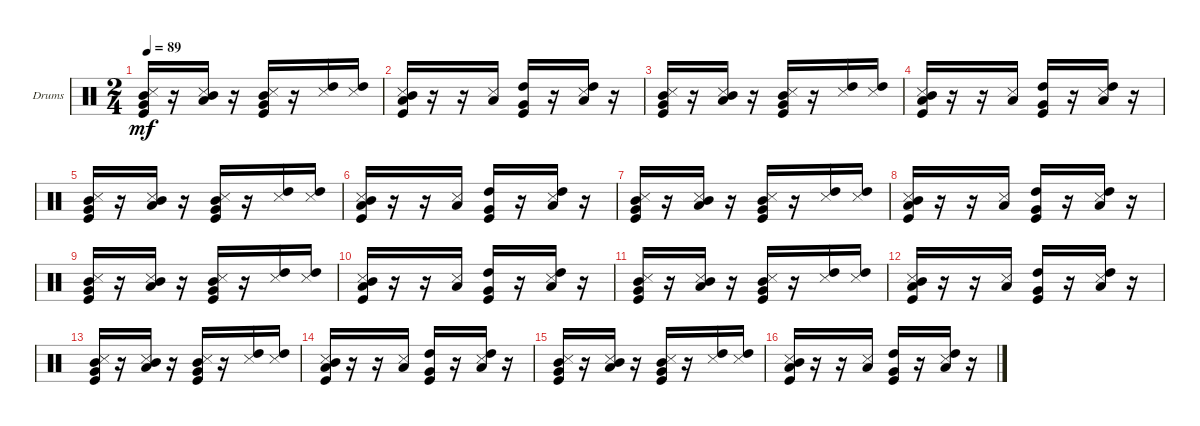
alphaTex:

\bracketExtendMode groupsimilarinstruments
\firstSystemTrackNameOrientation horizontal
\otherSystemsTrackNameOrientation horizontal
\track ("Ryo" "Drums") {instrument percussion}
\staff {score}
\articulation defaults
\ts (2 4)
\tempo 89
\clef neutral
\ks c
("Kick (hit)" "Very Low Tom (hit)" "Snare (side stick) 3" "Mid Tom (hit)").16{dy mf} r.16 ("Mid Tom (hit)" "Low Tom (hit)" "Snare (side stick) 3").16 r.16 ("Kick (hit)" "Very Low Tom (hit)" "Snare (side stick) 3" "Mid Tom (hit)").16 r.16 ("High Tom (hit)" "Snare (side stick) 3").16 ("High Tom (hit)" "Snare (side stick) 3").16 |
("Kick (hit)" "Low Tom (hit)" "Snare (side stick) 3" "Mid Tom (hit)").16 r.16 r.16 ("Low Tom (hit)" "Snare (side stick) 3").16 ("Kick (hit)" "Very Low Tom (hit)" "High Tom (hit)").16 r.16 ("Low Tom (hit)" "High Tom (hit)" "Snare (side stick) 3").16 r.16 |
("Kick (hit)" "Very Low Tom (hit)" "Snare (side stick) 3" "Mid Tom (hit)").16 r.16 ("Mid Tom (hit)" "Low Tom (hit)" "Snare (side stick) 3").16 r.16 ("Kick (hit)" "Very Low Tom (hit)" "Snare (side stick) 3" "Mid Tom (hit)").16 r.16 ("High Tom (hit)" "Snare (side stick) 3").16 ("High Tom (hit)" "Snare (side stick) 3").16 |
("Kick (hit)" "Low Tom (hit)" "Snare (side stick) 3" "Mid Tom (hit)").16 r.16 r.16 ("Low Tom (hit)" "Snare (side stick) 3").16 ("Kick (hit)" "Very Low Tom (hit)" "High Tom (hit)").16 r.16 ("Low Tom (hit)" "High Tom (hit)" "Snare (side stick) 3").16 r.16 |
("Kick (hit)" "Very Low Tom (hit)" "Snare (side stick) 3" "Mid Tom (hit)").16 r.16 ("Mid Tom (hit)" "Low Tom (hit)" "Snare (side stick) 3").16 r.16 ("Kick (hit)" "Very Low Tom (hit)" "Snare (side stick) 3" "Mid Tom (hit)").16 r.16 ("High Tom (hit)" "Snare (side stick) 3").16 ("High Tom (hit)" "Snare (side stick) 3").16 |
("Kick (hit)" "Low Tom (hit)" "Snare (side stick) 3" "Mid Tom (hit)").16 r.16 r.16 ("Low Tom (hit)" "Snare (side stick) 3").16 ("Kick (hit)" "Very Low Tom (hit)" "High Tom (hit)").16 r.16 ("Low Tom (hit)" "High Tom (hit)" "Snare (side stick) 3").16 r.16 |
("Kick (hit)" "Very Low Tom (hit)" "Snare (side stick) 3" "Mid Tom (hit)").16 r.16 ("Mid Tom (hit)" "Low Tom (hit)" "Snare (side stick) 3").16 r.16 ("Kick (hit)" "Very Low Tom (hit)" "Snare (side stick) 3" "Mid Tom (hit)").16 r.16 ("High Tom (hit)" "Snare (side stick) 3").16 ("High Tom (hit)" "Snare (side stick) 3").16 |
("Kick (hit)" "Low Tom (hit)" "Snare (side stick) 3" "Mid Tom (hit)").16 r.16 r.16 ("Low Tom (hit)" "Snare (side stick) 3").16 ("Kick (hit)" "Very Low Tom (hit)" "High Tom (hit)").16 r.16 ("Low Tom (hit)" "High Tom (hit)" "Snare (side stick) 3").16 r.16 |
("Kick (hit)" "Very Low Tom (hit)" "Snare (side stick) 3" "Mid Tom (hit)").16 r.16 ("Mid Tom (hit)" "Low Tom (hit)" "Snare (side stick) 3").16 r.16 ("Kick (hit)" "Very Low Tom (hit)" "Snare (side stick) 3" "Mid Tom (hit)").16 r.16 ("High Tom (hit)" "Snare (side stick) 3").16 ("High Tom (hit)" "Snare (side stick) 3").16 |
("Kick (hit)" "Low Tom (hit)" "Snare (side stick) 3" "Mid Tom (hit)").16 r.16 r.16 ("Low Tom (hit)" "Snare (side stick) 3").16 ("Kick (hit)" "Very Low Tom (hit)" "High Tom (hit)").16 r.16 ("Low Tom (hit)" "High Tom (hit)" "Snare (side stick) 3").16 r.16 |
("Kick (hit)" "Very Low Tom (hit)" "Snare (side stick) 3" "Mid Tom (hit)").16 r.16 ("Mid Tom (hit)" "Low Tom (hit)" "Snare (side stick) 3").16 r.16 ("Kick (hit)" "Very Low Tom (hit)" "Snare (side stick) 3" "Mid Tom (hit)").16 r.16 ("High Tom (hit)" "Snare (side stick) 3").16 ("High Tom (hit)" "Snare (side stick) 3").16 |
("Kick (hit)" "Low Tom (hit)" "Snare (side stick) 3" "Mid Tom (hit)").16 r.16 r.16 ("Low Tom (hit)" "Snare (side stick) 3").16 ("Kick (hit)" "Very Low Tom (hit)" "High Tom (hit)").16 r.16 ("Low Tom (hit)" "High Tom (hit)" "Snare (side stick) 3").16 r.16 |
("Kick (hit)" "Very Low Tom (hit)" "Snare (side stick) 3" "Mid Tom (hit)").16 r.16 ("Mid Tom (hit)" "Low Tom (hit)" "Snare (side stick) 3").16 r.16 ("Kick (hit)" "Very Low Tom (hit)" "Snare (side stick) 3" "Mid Tom (hit)").16 r.16 ("High Tom (hit)" "Snare (side stick) 3").16 ("High Tom (hit)" "Snare (side stick) 3").16 |
("Kick (hit)" "Low Tom (hit)" "Snare (side stick) 3" "Mid Tom (hit)").16 r.16 r.16 ("Low Tom (hit)" "Snare (side stick) 3").16 ("Kick (hit)" "Very Low Tom (hit)" "High Tom (hit)").16 r.16 ("Low Tom (hit)" "High Tom (hit)" "Snare (side stick) 3").16 r.16 |
("Kick (hit)" "Very Low Tom (hit)" "Snare (side stick) 3" "Mid Tom (hit)").16 r.16 ("Mid Tom (hit)" "Low Tom (hit)" "Snare (side stick) 3").16 r.16 ("Kick (hit)" "Very Low Tom (hit)" "Snare (side stick) 3" "Mid Tom (hit)").16 r.16 ("High Tom (hit)" "Snare (side stick) 3").16 ("High Tom (hit)" "Snare (side stick) 3").16 |
("Kick (hit)" "Low Tom (hit)" "Snare (side stick) 3" "Mid Tom (hit)").16 r.16 r.16 ("Low Tom (hit)" "Snare (side stick) 3").16 ("Kick (hit)" "Very Low Tom (hit)" "High Tom (hit)").16 r.16 ("Low Tom (hit)" "High Tom (hit)" "Snare (side stick) 3").16 r.16
